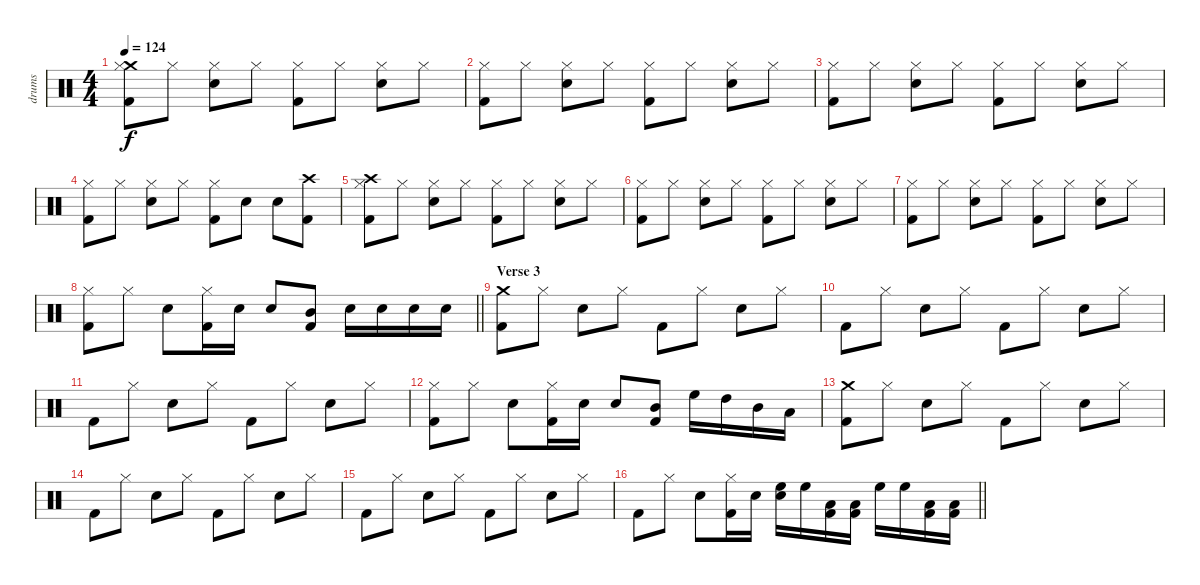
\track ("drums" "drums") {instrument percussion}
\staff {score}
\articulation defaults
\ts (4 4)
\tempo 124
\clef neutral
\ks c
("Crash medium (hit)" "Hi-Hat (closed)" "Kick (hit) 2").8{dy f} "Hi-Hat (closed)".8 ("Hi-Hat (closed)" "Snare (hit) 2").8 "Hi-Hat (closed)".8 ("Hi-Hat (closed)" "Kick (hit) 2").8 "Hi-Hat (closed)".8 ("Hi-Hat (closed)" "Snare (hit) 2").8 "Hi-Hat (closed)".8 |
("Hi-Hat (closed)" "Kick (hit) 2").8 "Hi-Hat (closed)".8 ("Hi-Hat (closed)" "Snare (hit) 2").8 "Hi-Hat (closed)".8 ("Hi-Hat (closed)" "Kick (hit) 2").8 "Hi-Hat (closed)".8 ("Hi-Hat (closed)" "Snare (hit) 2").8 "Hi-Hat (closed)".8 |
("Hi-Hat (closed)" "Kick (hit) 2").8 "Hi-Hat (closed)".8 ("Hi-Hat (closed)" "Snare (hit) 2").8 "Hi-Hat (closed)".8 ("Hi-Hat (closed)" "Kick (hit) 2").8 "Hi-Hat (closed)".8 ("Hi-Hat (closed)" "Snare (hit) 2").8 "Hi-Hat (closed)".8 |
("Hi-Hat (closed)" "Kick (hit) 2").8 "Hi-Hat (closed)".8 ("Hi-Hat (closed)" "Snare (hit) 2").8 "Hi-Hat (closed)".8 ("Hi-Hat (closed)" "Kick (hit) 2").8 "Snare (hit) 2".8 "Snare (hit) 2".8 ("Crash high (hit)" "Kick (hit) 2").8 |
("Crash high (hit)" "Hi-Hat (closed)" "Kick (hit) 2").8 "Hi-Hat (closed)".8 ("Hi-Hat (closed)" "Snare (hit) 2").8 "Hi-Hat (closed)".8 ("Hi-Hat (closed)" "Kick (hit) 2").8 "Hi-Hat (closed)".8 ("Hi-Hat (closed)" "Snare (hit) 2").8 "Hi-Hat (closed)".8 |
("Hi-Hat (closed)" "Kick (hit) 2").8 "Hi-Hat (closed)".8 ("Hi-Hat (closed)" "Snare (hit) 2").8 "Hi-Hat (closed)".8 ("Hi-Hat (closed)" "Kick (hit) 2").8 "Hi-Hat (closed)".8 ("Hi-Hat (closed)" "Snare (hit) 2").8 "Hi-Hat (closed)".8 |
("Hi-Hat (closed)" "Kick (hit) 2").8 "Hi-Hat (closed)".8 ("Hi-Hat (closed)" "Snare (hit) 2").8 "Hi-Hat (closed)".8 ("Hi-Hat (closed)" "Kick (hit) 2").8 "Hi-Hat (closed)".8 ("Hi-Hat (closed)" "Snare (hit) 2").8 "Hi-Hat (closed)".8 |
\barLineRight lightlight
("Hi-Hat (closed)" "Kick (hit) 2").8 "Hi-Hat (closed)".8 "Snare (hit) 2".8 ("Hi-Hat (closed)" "Kick (hit) 2").16 "Snare (hit) 2".16 "Snare (hit) 2".8 ("Mid Tom (hit)" "Kick (hit) 2").8 "Snare (hit) 2".16 "Snare (hit) 2".16 "Snare (hit) 2".16 "Snare (hit) 2".16 |
\section ("" "Verse 3")
("Crash medium (hit)" "Kick (hit) 2").8 "Hi-Hat (closed)".8 "Snare (hit) 2".8 "Hi-Hat (closed)".8 "Kick (hit) 2".8 "Hi-Hat (closed)".8 "Snare (hit) 2".8 "Hi-Hat (closed)".8 |
"Kick (hit) 2".8 "Hi-Hat (closed)".8 "Snare (hit) 2".8 "Hi-Hat (closed)".8 "Kick (hit) 2".8 "Hi-Hat (closed)".8 "Snare (hit) 2".8 "Hi-Hat (closed)".8 |
"Kick (hit) 2".8 "Hi-Hat (closed)".8 "Snare (hit) 2".8 "Hi-Hat (closed)".8 "Kick (hit) 2".8 "Hi-Hat (closed)".8 "Snare (hit) 2".8 "Hi-Hat (closed)".8 |
("Hi-Hat (closed)" "Kick (hit) 2").8 "Hi-Hat (closed)".8 "Snare (hit) 2".8 ("Hi-Hat (closed)" "Kick (hit) 2").16 "Snare (hit) 2".16 "Snare (hit) 2".8 ("Mid Tom (hit)" "Kick (hit) 2").8 "High Floor Tom (hit)".16 "High Tom (hit)".16 "Mid Tom (hit)".16 "Low Tom (hit)".16 |
("Crash medium (hit)" "Kick (hit) 2").8 "Hi-Hat (closed)".8 "Snare (hit) 2".8 "Hi-Hat (closed)".8 "Kick (hit) 2".8 "Hi-Hat (closed)".8 "Snare (hit) 2".8 "Hi-Hat (closed)".8 |
"Kick (hit) 2".8 "Hi-Hat (closed)".8 "Snare (hit) 2".8 "Hi-Hat (closed)".8 "Kick (hit) 2".8 "Hi-Hat (closed)".8 "Snare (hit) 2".8 "Hi-Hat (closed)".8 |
"Kick (hit) 2".8 "Hi-Hat (closed)".8 "Snare (hit) 2".8 "Hi-Hat (closed)".8 "Kick (hit) 2".8 "Hi-Hat (closed)".8 "Snare (hit) 2".8 "Hi-Hat (closed)".8 |
\barLineRight lightlight "Kick (hit) 2".8 "Hi-Hat (closed)".8 "Snare (hit) 2".8
("Hi-Hat (closed)" "Kick (hit) 2").16 "Snare (hit) 2".16 ("High Floor Tom (hit)" "Snare (hit) 2").16 "High Floor Tom (hit)".16 ("Low Tom (hit)" "Kick (hit) 2").16 ("Low Tom (hit)" "Kick (hit) 2").16 "High Floor Tom (hit)".16 "High Floor Tom (hit)".16 ("Low Tom (hit)" "Kick (hit) 2").16 ("Low Tom (hit)" "Kick (hit) 2").16
